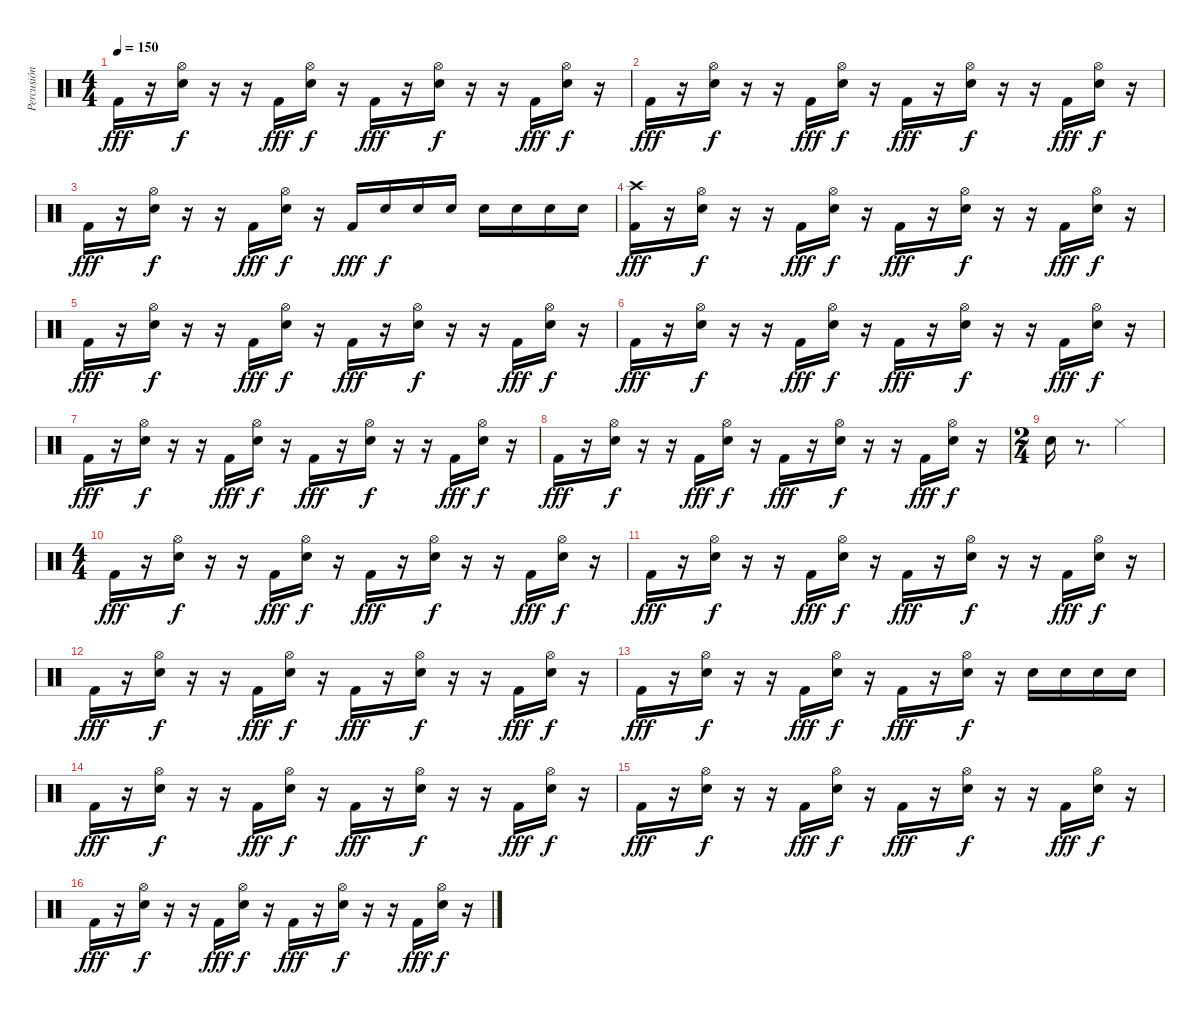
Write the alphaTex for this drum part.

\track ("Percusión" "Percusión") {instrument percussion}
\staff {score}
\articulation defaults
\ts (4 4)
\tempo 150
\clef neutral
\ks c "Kick (hit) 2".16{dy fff}
r.16 ("Electric Snare (hit)" "Hi-Hat (open)").16{dy f} r.16 r.16 "Kick (hit) 2".16{dy fff} ("Electric Snare (hit)" "Hi-Hat (open)").16{dy f} r.16 "Kick (hit) 2".16{dy fff} r.16 ("Electric Snare (hit)" "Hi-Hat (open)").16{dy f} r.16 r.16 "Kick (hit) 2".16{dy fff} ("Electric Snare (hit)" "Hi-Hat (open)").16{dy f} r.16 |
"Kick (hit) 2".16{dy fff} r.16 ("Electric Snare (hit)" "Hi-Hat (open)").16{dy f} r.16 r.16 "Kick (hit) 2".16{dy fff} ("Electric Snare (hit)" "Hi-Hat (open)").16{dy f} r.16 "Kick (hit) 2".16{dy fff} r.16 ("Electric Snare (hit)" "Hi-Hat (open)").16{dy f} r.16 r.16 "Kick (hit) 2".16{dy fff} ("Electric Snare (hit)" "Hi-Hat (open)").16{dy f} r.16 |
"Kick (hit) 2".16{dy fff} r.16 ("Electric Snare (hit)" "Hi-Hat (open)").16{dy f} r.16 r.16 "Kick (hit) 2".16{dy fff} ("Electric Snare (hit)" "Hi-Hat (open)").16{dy f} r.16 "Kick (hit) 2".16{dy fff} "Electric Snare (hit)".16{dy f} "Electric Snare (hit)".16 "Electric Snare (hit)".16 "Electric Snare (hit)".16 "Electric Snare (hit)".16 "Electric Snare (hit)".16 "Electric Snare (hit)".16 |
("Kick (hit) 2" "Crash high (hit)").16{dy fff} r.16 ("Electric Snare (hit)" "Hi-Hat (open)").16{dy f} r.16 r.16 "Kick (hit) 2".16{dy fff} ("Electric Snare (hit)" "Hi-Hat (open)").16{dy f} r.16 "Kick (hit) 2".16{dy fff} r.16 ("Electric Snare (hit)" "Hi-Hat (open)").16{dy f} r.16 r.16 "Kick (hit) 2".16{dy fff} ("Electric Snare (hit)" "Hi-Hat (open)").16{dy f} r.16 |
"Kick (hit) 2".16{dy fff} r.16 ("Electric Snare (hit)" "Hi-Hat (open)").16{dy f} r.16 r.16 "Kick (hit) 2".16{dy fff} ("Electric Snare (hit)" "Hi-Hat (open)").16{dy f} r.16 "Kick (hit) 2".16{dy fff} r.16 ("Electric Snare (hit)" "Hi-Hat (open)").16{dy f} r.16 r.16 "Kick (hit) 2".16{dy fff} ("Electric Snare (hit)" "Hi-Hat (open)").16{dy f} r.16 |
"Kick (hit) 2".16{dy fff} r.16 ("Electric Snare (hit)" "Hi-Hat (open)").16{dy f} r.16 r.16 "Kick (hit) 2".16{dy fff} ("Electric Snare (hit)" "Hi-Hat (open)").16{dy f} r.16 "Kick (hit) 2".16{dy fff} r.16 ("Electric Snare (hit)" "Hi-Hat (open)").16{dy f} r.16 r.16 "Kick (hit) 2".16{dy fff} ("Electric Snare (hit)" "Hi-Hat (open)").16{dy f} r.16 |
"Kick (hit) 2".16{dy fff} r.16 ("Electric Snare (hit)" "Hi-Hat (open)").16{dy f} r.16 r.16 "Kick (hit) 2".16{dy fff} ("Electric Snare (hit)" "Hi-Hat (open)").16{dy f} r.16 "Kick (hit) 2".16{dy fff} r.16 ("Electric Snare (hit)" "Hi-Hat (open)").16{dy f} r.16 r.16 "Kick (hit) 2".16{dy fff} ("Electric Snare (hit)" "Hi-Hat (open)").16{dy f} r.16 |
"Kick (hit) 2".16{dy fff} r.16 ("Electric Snare (hit)" "Hi-Hat (open)").16{dy f} r.16 r.16 "Kick (hit) 2".16{dy fff} ("Electric Snare (hit)" "Hi-Hat (open)").16{dy f} r.16 "Kick (hit) 2".16{dy fff} r.16 ("Electric Snare (hit)" "Hi-Hat (open)").16{dy f} r.16 r.16 "Kick (hit) 2".16{dy fff} ("Electric Snare (hit)" "Hi-Hat (open)").16{dy f} r.16 |
\ts (2 4)
"Electric Snare (hit)".16 r.8{d} "Hi-Hat (closed)".4 |
\ts (4 4)
"Kick (hit) 2".16{dy fff} r.16 ("Electric Snare (hit)" "Hi-Hat (open)").16{dy f} r.16 r.16 "Kick (hit) 2".16{dy fff} ("Electric Snare (hit)" "Hi-Hat (open)").16{dy f} r.16 "Kick (hit) 2".16{dy fff} r.16 ("Electric Snare (hit)" "Hi-Hat (open)").16{dy f} r.16 r.16 "Kick (hit) 2".16{dy fff} ("Electric Snare (hit)" "Hi-Hat (open)").16{dy f} r.16 |
"Kick (hit) 2".16{dy fff} r.16 ("Electric Snare (hit)" "Hi-Hat (open)").16{dy f} r.16 r.16 "Kick (hit) 2".16{dy fff} ("Electric Snare (hit)" "Hi-Hat (open)").16{dy f} r.16 "Kick (hit) 2".16{dy fff} r.16 ("Electric Snare (hit)" "Hi-Hat (open)").16{dy f} r.16 r.16 "Kick (hit) 2".16{dy fff} ("Electric Snare (hit)" "Hi-Hat (open)").16{dy f} r.16 |
"Kick (hit) 2".16{dy fff} r.16 ("Electric Snare (hit)" "Hi-Hat (open)").16{dy f} r.16 r.16 "Kick (hit) 2".16{dy fff} ("Electric Snare (hit)" "Hi-Hat (open)").16{dy f} r.16 "Kick (hit) 2".16{dy fff} r.16 ("Electric Snare (hit)" "Hi-Hat (open)").16{dy f} r.16 r.16 "Kick (hit) 2".16{dy fff} ("Electric Snare (hit)" "Hi-Hat (open)").16{dy f} r.16 |
"Kick (hit) 2".16{dy fff} r.16 ("Electric Snare (hit)" "Hi-Hat (open)").16{dy f} r.16 r.16 "Kick (hit) 2".16{dy fff} ("Electric Snare (hit)" "Hi-Hat (open)").16{dy f} r.16 "Kick (hit) 2".16{dy fff} r.16 ("Electric Snare (hit)" "Hi-Hat (open)").16{dy f} r.16 "Electric Snare (hit)".16 "Electric Snare (hit)".16 "Electric Snare (hit)".16 "Electric Snare (hit)".16 |
"Kick (hit) 2".16{dy fff} r.16 ("Electric Snare (hit)" "Hi-Hat (open)").16{dy f} r.16 r.16 "Kick (hit) 2".16{dy fff} ("Electric Snare (hit)" "Hi-Hat (open)").16{dy f} r.16 "Kick (hit) 2".16{dy fff} r.16 ("Electric Snare (hit)" "Hi-Hat (open)").16{dy f} r.16 r.16 "Kick (hit) 2".16{dy fff} ("Electric Snare (hit)" "Hi-Hat (open)").16{dy f} r.16 |
"Kick (hit) 2".16{dy fff} r.16 ("Electric Snare (hit)" "Hi-Hat (open)").16{dy f} r.16 r.16 "Kick (hit) 2".16{dy fff} ("Electric Snare (hit)" "Hi-Hat (open)").16{dy f} r.16 "Kick (hit) 2".16{dy fff} r.16 ("Electric Snare (hit)" "Hi-Hat (open)").16{dy f} r.16 r.16 "Kick (hit) 2".16{dy fff} ("Electric Snare (hit)" "Hi-Hat (open)").16{dy f} r.16 |
"Kick (hit) 2".16{dy fff} r.16 ("Electric Snare (hit)" "Hi-Hat (open)").16{dy f} r.16 r.16 "Kick (hit) 2".16{dy fff} ("Electric Snare (hit)" "Hi-Hat (open)").16{dy f} r.16 "Kick (hit) 2".16{dy fff} r.16 ("Electric Snare (hit)" "Hi-Hat (open)").16{dy f} r.16 r.16 "Kick (hit) 2".16{dy fff} ("Electric Snare (hit)" "Hi-Hat (open)").16{dy f} r.16
